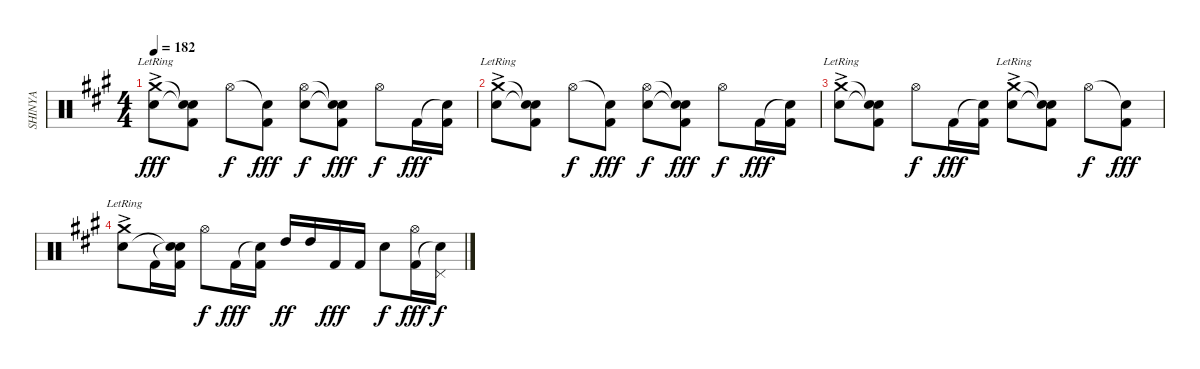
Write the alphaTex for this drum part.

\track ("SHINYA" "SHINYA") {instrument percussion}
\staff {score}
\articulation defaults
\ts (4 4)
\tempo 182
\clef neutral
\ks a
("Crash medium (hit)"{ac lr} "Electric Snare (hit)").8{dy fff} ("Snare (hit)"{t} "Snare (hit)"{t} "Kick (hit) 2").8 "Hi-Hat (open)".8{dy f} ("Snare (hit)"{t} "Kick (hit) 2").8{dy fff} ("Hi-Hat (open)" "Electric Snare (hit)").8{dy f} ("Snare (hit)"{t} "Snare (hit)"{t} "Kick (hit) 2").8{dy fff} "Hi-Hat (open)".8{dy f} "Kick (hit) 2".16{dy fff} ("Snare (hit)"{t} "Kick (hit) 2").16 |
("Crash medium (hit)"{ac lr} "Electric Snare (hit)").8 ("Snare (hit)"{t} "Snare (hit)"{t} "Kick (hit) 2").8 "Hi-Hat (open)".8{dy f} ("Snare (hit)"{t} "Kick (hit) 2").8{dy fff} ("Hi-Hat (open)" "Electric Snare (hit)").8{dy f} ("Snare (hit)"{t} "Snare (hit)"{t} "Kick (hit) 2").8{dy fff} "Hi-Hat (open)".8{dy f} "Kick (hit) 2".16{dy fff} ("Snare (hit)"{t} "Kick (hit) 2").16 |
("Crash medium (hit)"{ac lr} "Electric Snare (hit)").8 ("Snare (hit)"{t} "Snare (hit)"{t} "Kick (hit) 2").8 "Hi-Hat (open)".8{dy f} "Kick (hit) 2".16{dy fff} ("Snare (hit)"{t} "Kick (hit) 2").16 ("Crash medium (hit)"{ac lr} "Electric Snare (hit)").8 ("Snare (hit)"{t} "Snare (hit)"{t} "Kick (hit) 2").8 "Hi-Hat (open)".8{dy f} ("Snare (hit)"{t} "Kick (hit) 2").8{dy fff} |
("Crash medium (hit)"{ac lr} "Electric Snare (hit)").8 "Kick (hit) 2".16 ("Snare (hit)"{t} "Snare (hit)"{t} "Kick (hit) 2").16 "Hi-Hat (open)".8{dy f} "Kick (hit) 2".16{dy fff} ("Snare (hit)"{t} "Kick (hit) 2").16 "High Tom (hit)".16{dy ff} "High Tom (hit)".16 "Kick (hit) 2".16{dy fff} "Kick (hit) 2".16 "Electric Snare (hit)".8{dy f} ("Hi-Hat (open)" "Kick (hit) 2").16{dy fff} ("Pedal Hi-Hat (hit)" "Snare (hit)"{t}).16{dy f}
